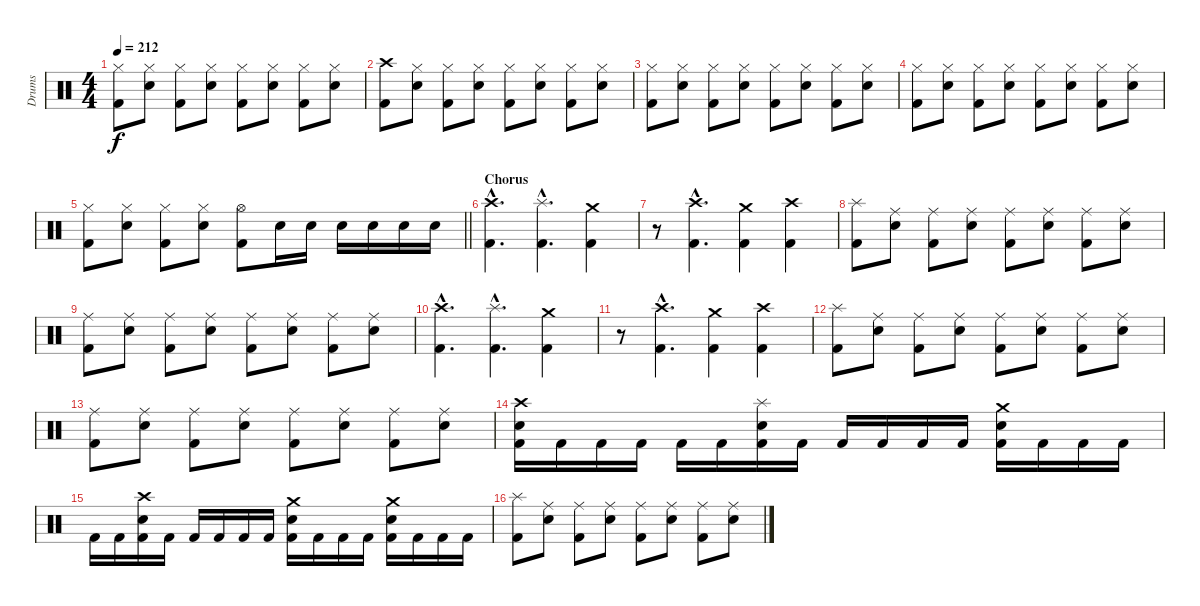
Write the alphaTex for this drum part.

\track ("Drums" "Drums") {instrument percussion}
\staff {score}
\articulation defaults
\ts (4 4)
\tempo 212
\clef neutral
\ks c
("Hi-Hat (closed)" "Kick (hit) 2").8{dy f} ("Hi-Hat (closed)" "Electric Snare (hit)").8 ("Hi-Hat (closed)" "Kick (hit) 2").8 ("Hi-Hat (closed)" "Electric Snare (hit)").8 ("Hi-Hat (closed)" "Kick (hit) 2").8 ("Hi-Hat (closed)" "Electric Snare (hit)").8 ("Hi-Hat (closed)" "Kick (hit) 2").8 ("Hi-Hat (closed)" "Electric Snare (hit)").8 |
("Crash high (hit)" "Kick (hit) 2").8 ("Hi-Hat (closed)" "Electric Snare (hit)").8 ("Hi-Hat (closed)" "Kick (hit) 2").8 ("Hi-Hat (closed)" "Electric Snare (hit)").8 ("Hi-Hat (closed)" "Kick (hit) 2").8 ("Hi-Hat (closed)" "Electric Snare (hit)").8 ("Hi-Hat (closed)" "Kick (hit) 2").8 ("Hi-Hat (closed)" "Electric Snare (hit)").8 |
("Hi-Hat (closed)" "Kick (hit) 2").8 ("Hi-Hat (closed)" "Electric Snare (hit)").8 ("Hi-Hat (closed)" "Kick (hit) 2").8 ("Hi-Hat (closed)" "Electric Snare (hit)").8 ("Hi-Hat (closed)" "Kick (hit) 2").8 ("Hi-Hat (closed)" "Electric Snare (hit)").8 ("Hi-Hat (closed)" "Kick (hit) 2").8 ("Hi-Hat (closed)" "Electric Snare (hit)").8 |
("Hi-Hat (closed)" "Kick (hit) 2").8 ("Hi-Hat (closed)" "Electric Snare (hit)").8 ("Hi-Hat (closed)" "Kick (hit) 2").8 ("Hi-Hat (closed)" "Electric Snare (hit)").8 ("Hi-Hat (closed)" "Kick (hit) 2").8 ("Hi-Hat (closed)" "Electric Snare (hit)").8 ("Hi-Hat (closed)" "Kick (hit) 2").8 ("Hi-Hat (closed)" "Electric Snare (hit)").8 |
\barLineRight lightlight
("Hi-Hat (closed)" "Kick (hit) 2").8 ("Hi-Hat (closed)" "Electric Snare (hit)").8 ("Hi-Hat (closed)" "Kick (hit) 2").8 ("Hi-Hat (closed)" "Electric Snare (hit)").8 ("Hi-Hat (open)" "Kick (hit) 2").8 "Electric Snare (hit)".16 "Electric Snare (hit)".16 "Electric Snare (hit)".16 "Electric Snare (hit)".16 "Electric Snare (hit)".16 "Electric Snare (hit)".16 |
\section ("" "Chorus")
("Crash high (hit)"{hac} "Kick (hit) 2"{hac}).4{d} ("Splash (hit)"{hac} "Kick (hit) 2"{hac}).4{d} ("Crash medium (hit)" "Kick (hit) 2").4 |
r.8 ("Crash high (hit)"{hac} "Kick (hit) 2"{hac}).4{d} ("Crash medium (hit)" "Kick (hit) 2").4 ("Crash high (hit)" "Kick (hit) 2").4 |
("Splash (hit)" "Kick (hit) 2").8 ("Ride (middle)" "Electric Snare (hit)").8 ("Ride (middle)" "Kick (hit) 2").8 ("Ride (middle)" "Electric Snare (hit)").8 ("Ride (middle)" "Kick (hit) 2").8 ("Ride (middle)" "Electric Snare (hit)").8 ("Ride (middle)" "Kick (hit) 2").8 ("Ride (middle)" "Electric Snare (hit)").8 |
("Ride (middle)" "Kick (hit) 2").8 ("Ride (middle)" "Electric Snare (hit)").8 ("Ride (middle)" "Kick (hit) 2").8 ("Ride (middle)" "Electric Snare (hit)").8 ("Ride (middle)" "Kick (hit) 2").8 ("Ride (middle)" "Electric Snare (hit)").8 ("Ride (middle)" "Kick (hit) 2").8 ("Ride (middle)" "Electric Snare (hit)").8 |
("Crash high (hit)"{hac} "Kick (hit) 2"{hac}).4{d} ("Splash (hit)"{hac} "Kick (hit) 2"{hac}).4{d} ("Crash medium (hit)" "Kick (hit) 2").4 |
r.8 ("Crash high (hit)"{hac} "Kick (hit) 2"{hac}).4{d} ("Crash medium (hit)" "Kick (hit) 2").4 ("Crash high (hit)" "Kick (hit) 2").4 |
("Splash (hit)" "Kick (hit) 2").8 ("Ride (middle)" "Electric Snare (hit)").8 ("Ride (middle)" "Kick (hit) 2").8 ("Ride (middle)" "Electric Snare (hit)").8 ("Ride (middle)" "Kick (hit) 2").8 ("Ride (middle)" "Electric Snare (hit)").8 ("Ride (middle)" "Kick (hit) 2").8 ("Ride (middle)" "Electric Snare (hit)").8 |
("Ride (middle)" "Kick (hit) 2").8 ("Ride (middle)" "Electric Snare (hit)").8 ("Ride (middle)" "Kick (hit) 2").8 ("Ride (middle)" "Electric Snare (hit)").8 ("Ride (middle)" "Kick (hit) 2").8 ("Ride (middle)" "Electric Snare (hit)").8 ("Ride (middle)" "Kick (hit) 2").8 ("Ride (middle)" "Electric Snare (hit)").8 |
("Crash high (hit)" "Electric Snare (hit)" "Kick (hit) 2").16 "Kick (hit) 2".16 "Kick (hit) 2".16 "Kick (hit) 2".16 "Kick (hit) 2".16 "Kick (hit) 2".16 ("Splash (hit)" "Electric Snare (hit)" "Kick (hit) 2").16 "Kick (hit) 2".16 "Kick (hit) 2".16 "Kick (hit) 2".16 "Kick (hit) 2".16 "Kick (hit) 2".16 ("Crash medium (hit)" "Electric Snare (hit)" "Kick (hit) 2").16 "Kick (hit) 2".16 "Kick (hit) 2".16 "Kick (hit) 2".16 |
"Kick (hit) 2".16 "Kick (hit) 2".16 ("Crash high (hit)" "Electric Snare (hit)" "Kick (hit) 2").16 "Kick (hit) 2".16 "Kick (hit) 2".16 "Kick (hit) 2".16 "Kick (hit) 2".16 "Kick (hit) 2".16 ("Crash medium (hit)" "Electric Snare (hit)" "Kick (hit) 2").16 "Kick (hit) 2".16 "Kick (hit) 2".16 "Kick (hit) 2".16 ("Crash medium (hit)" "Electric Snare (hit)" "Kick (hit) 2").16 "Kick (hit) 2".16 "Kick (hit) 2".16 "Kick (hit) 2".16 |
("Splash (hit)" "Kick (hit) 2").8 ("Ride (middle)" "Electric Snare (hit)").8 ("Ride (middle)" "Kick (hit) 2").8 ("Ride (middle)" "Electric Snare (hit)").8 ("Ride (middle)" "Kick (hit) 2").8 ("Ride (middle)" "Electric Snare (hit)").8 ("Ride (middle)" "Kick (hit) 2").8 ("Ride (middle)" "Electric Snare (hit)").8
